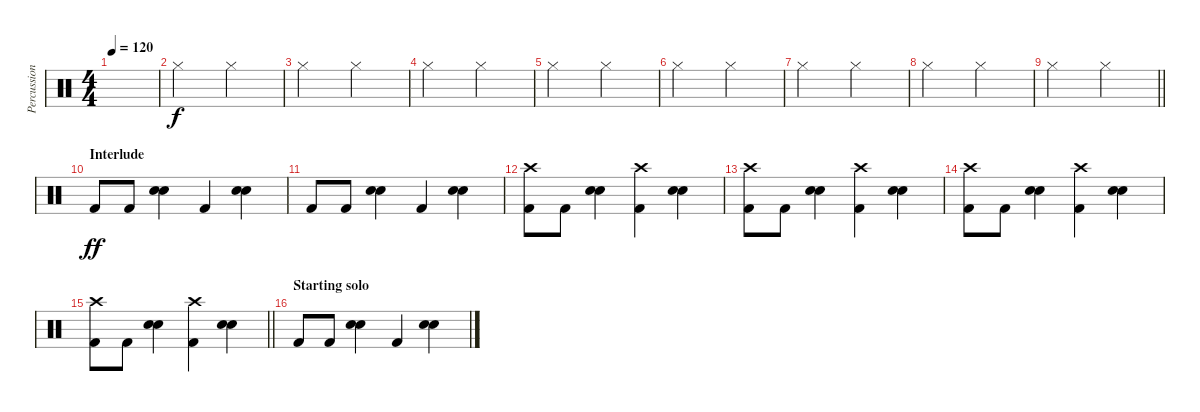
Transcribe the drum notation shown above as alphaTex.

\track ("Percussion" "Percussion") {instrument percussion}
\staff {score}
\articulation defaults
\ts (4 4)
\tempo 120
\clef neutral
\ks c
|
"Hi-Hat (closed)".2 "Hi-Hat (closed)".2 |
"Hi-Hat (closed)".2 "Hi-Hat (closed)".2 |
"Hi-Hat (closed)".2 "Hi-Hat (closed)".2 |
"Hi-Hat (closed)".2 "Hi-Hat (closed)".2 |
"Hi-Hat (closed)".2 "Hi-Hat (closed)".2 |
"Hi-Hat (closed)".2 "Hi-Hat (closed)".2 |
"Hi-Hat (closed)".2 "Hi-Hat (closed)".2 |
\barLineRight lightlight "Hi-Hat (closed)".2 "Hi-Hat (closed)".2
|
\section ("" "Interlude")
"Kick (hit) 2".8{dy ff} "Kick (hit) 2".8 ("Snare (hit) 2" "Snare (hit) 2").4 "Kick (hit) 2".4 ("Snare (hit) 2" "Snare (hit) 2").4 |
"Kick (hit) 2".8 "Kick (hit) 2".8 ("Snare (hit) 2" "Snare (hit) 2").4 "Kick (hit) 2".4 ("Snare (hit) 2" "Snare (hit) 2").4 |
("Kick (hit) 2" "Crash high (hit)").8 "Kick (hit) 2".8 ("Snare (hit) 2" "Snare (hit) 2").4 ("Kick (hit) 2" "Crash high (hit)").4 ("Snare (hit) 2" "Snare (hit) 2").4 |
("Kick (hit) 2" "Crash high (hit)").8 "Kick (hit) 2".8 ("Snare (hit) 2" "Snare (hit) 2").4 ("Kick (hit) 2" "Crash high (hit)").4 ("Snare (hit) 2" "Snare (hit) 2").4 |
("Kick (hit) 2" "Crash high (hit)").8 "Kick (hit) 2".8 ("Snare (hit) 2" "Snare (hit) 2").4 ("Kick (hit) 2" "Crash high (hit)").4 ("Snare (hit) 2" "Snare (hit) 2").4 |
\barLineRight lightlight
("Kick (hit) 2" "Crash high (hit)").8 "Kick (hit) 2".8 ("Snare (hit) 2" "Snare (hit) 2").4 ("Kick (hit) 2" "Crash high (hit)").4 ("Snare (hit) 2" "Snare (hit) 2").4 |
\section ("" "Starting solo")
"Kick (hit) 2".8 "Kick (hit) 2".8 ("Snare (hit) 2" "Snare (hit) 2").4 "Kick (hit) 2".4 ("Snare (hit) 2" "Snare (hit) 2").4
